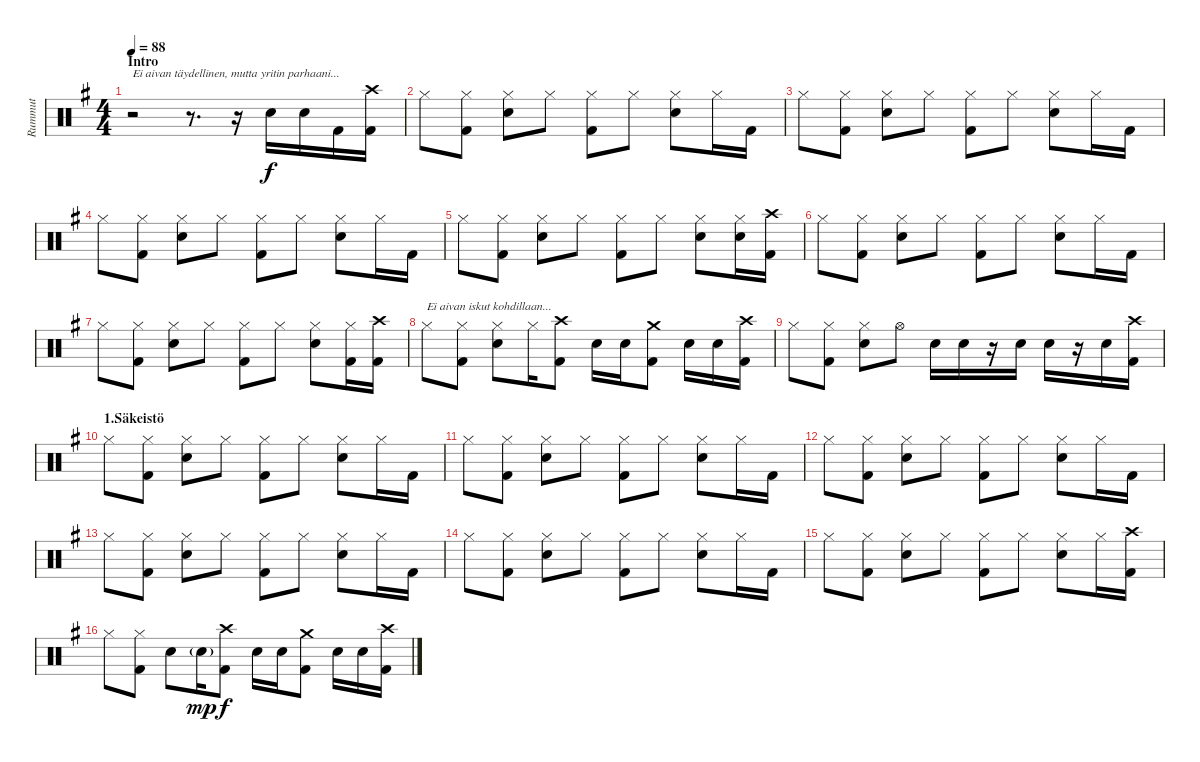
\track ("Rummut" "Rummut") {instrument percussion}
\staff {score}
\articulation defaults
\ts (4 4)
\section ("" "Intro")
\tempo 88
\clef neutral
\ks eminor
r.2{txt "Ei aivan täydellinen, mutta yritin parhaani..." dy f} r.8{d} r.16 "Snare (hit) 2".16 "Snare (hit) 2".16 "Kick (hit) 2".16 ("Crash high (hit)" "Kick (hit) 2").16 |
"Hi-Hat (closed)".8 ("Hi-Hat (closed)" "Kick (hit) 2").8 ("Hi-Hat (closed)" "Snare (hit) 2").8 "Hi-Hat (closed)".8 ("Hi-Hat (closed)" "Kick (hit) 2").8 "Hi-Hat (closed)".8 ("Hi-Hat (closed)" "Snare (hit) 2").8 "Hi-Hat (closed)".16 "Kick (hit) 2".16 |
"Hi-Hat (closed)".8 ("Hi-Hat (closed)" "Kick (hit) 2").8 ("Hi-Hat (closed)" "Snare (hit) 2").8 "Hi-Hat (closed)".8 ("Hi-Hat (closed)" "Kick (hit) 2").8 "Hi-Hat (closed)".8 ("Hi-Hat (closed)" "Snare (hit) 2").8 "Hi-Hat (closed)".16 "Kick (hit) 2".16 |
"Hi-Hat (closed)".8 ("Hi-Hat (closed)" "Kick (hit) 2").8 ("Hi-Hat (closed)" "Snare (hit) 2").8 "Hi-Hat (closed)".8 ("Hi-Hat (closed)" "Kick (hit) 2").8 "Hi-Hat (closed)".8 ("Hi-Hat (closed)" "Snare (hit) 2").8 "Hi-Hat (closed)".16 "Kick (hit) 2".16 |
"Hi-Hat (closed)".8 ("Hi-Hat (closed)" "Kick (hit) 2").8 ("Hi-Hat (closed)" "Snare (hit) 2").8 "Hi-Hat (closed)".8 ("Hi-Hat (closed)" "Kick (hit) 2").8 "Hi-Hat (closed)".8 ("Hi-Hat (closed)" "Snare (hit) 2").8 ("Hi-Hat (closed)" "Snare (hit) 2").16 ("Crash high (hit)" "Kick (hit) 2").16 |
"Hi-Hat (closed)".8 ("Hi-Hat (closed)" "Kick (hit) 2").8 ("Hi-Hat (closed)" "Snare (hit) 2").8 "Hi-Hat (closed)".8 ("Hi-Hat (closed)" "Kick (hit) 2").8 "Hi-Hat (closed)".8 ("Hi-Hat (closed)" "Snare (hit) 2").8 "Hi-Hat (closed)".16 "Kick (hit) 2".16 |
"Hi-Hat (closed)".8 ("Hi-Hat (closed)" "Kick (hit) 2").8 ("Hi-Hat (closed)" "Snare (hit) 2").8 "Hi-Hat (closed)".8 ("Hi-Hat (closed)" "Kick (hit) 2").8 "Hi-Hat (closed)".8 ("Hi-Hat (closed)" "Snare (hit) 2").8 ("Hi-Hat (closed)" "Kick (hit) 2").16 ("Crash high (hit)" "Kick (hit) 2").16 |
"Hi-Hat (closed)".8{txt "Ei aivan iskut kohdillaan..."} ("Hi-Hat (closed)" "Kick (hit) 2").8 ("Hi-Hat (closed)" "Snare (hit) 2").8 "Hi-Hat (closed)".16 ("Crash high (hit)" "Kick (hit) 2").8 "Snare (hit) 2".16 "Snare (hit) 2".16 ("Crash medium (hit)" "Kick (hit) 2").8 "Snare (hit) 2".16 "Snare (hit) 2".16 ("Crash high (hit)" "Kick (hit) 2").16 |
"Hi-Hat (closed)".8 ("Hi-Hat (closed)" "Kick (hit) 2").8 ("Hi-Hat (closed)" "Snare (hit) 2").8 "Hi-Hat (open)".8 "Snare (hit) 2".16 "Snare (hit) 2".16 r.16 "Snare (hit) 2".16 "Snare (hit) 2".16 r.16 "Snare (hit) 2".16 ("Crash high (hit)" "Kick (hit) 2").16 |
\section ("" "1.Säkeistö")
"Hi-Hat (closed)".8 ("Hi-Hat (closed)" "Kick (hit) 2").8 ("Hi-Hat (closed)" "Snare (hit) 2").8 "Hi-Hat (closed)".8 ("Hi-Hat (closed)" "Kick (hit) 2").8 "Hi-Hat (closed)".8 ("Hi-Hat (closed)" "Snare (hit) 2").8 "Hi-Hat (closed)".16 "Kick (hit) 2".16 |
"Hi-Hat (closed)".8 ("Hi-Hat (closed)" "Kick (hit) 2").8 ("Hi-Hat (closed)" "Snare (hit) 2").8 "Hi-Hat (closed)".8 ("Hi-Hat (closed)" "Kick (hit) 2").8 "Hi-Hat (closed)".8 ("Hi-Hat (closed)" "Snare (hit) 2").8 "Hi-Hat (closed)".16 "Kick (hit) 2".16 |
"Hi-Hat (closed)".8 ("Hi-Hat (closed)" "Kick (hit) 2").8 ("Hi-Hat (closed)" "Snare (hit) 2").8 "Hi-Hat (closed)".8 ("Hi-Hat (closed)" "Kick (hit) 2").8 "Hi-Hat (closed)".8 ("Hi-Hat (closed)" "Snare (hit) 2").8 "Hi-Hat (closed)".16 "Kick (hit) 2".16 |
"Hi-Hat (closed)".8 ("Hi-Hat (closed)" "Kick (hit) 2").8 ("Hi-Hat (closed)" "Snare (hit) 2").8 "Hi-Hat (closed)".8 ("Hi-Hat (closed)" "Kick (hit) 2").8 "Hi-Hat (closed)".8 ("Hi-Hat (closed)" "Snare (hit) 2").8 "Hi-Hat (closed)".16 "Kick (hit) 2".16 |
"Hi-Hat (closed)".8 ("Hi-Hat (closed)" "Kick (hit) 2").8 ("Hi-Hat (closed)" "Snare (hit) 2").8 "Hi-Hat (closed)".8 ("Hi-Hat (closed)" "Kick (hit) 2").8 "Hi-Hat (closed)".8 ("Hi-Hat (closed)" "Snare (hit) 2").8 "Hi-Hat (closed)".16 "Kick (hit) 2".16 |
"Hi-Hat (closed)".8 ("Hi-Hat (closed)" "Kick (hit) 2").8 ("Hi-Hat (closed)" "Snare (hit) 2").8 "Hi-Hat (closed)".8 ("Hi-Hat (closed)" "Kick (hit) 2").8 "Hi-Hat (closed)".8 ("Hi-Hat (closed)" "Snare (hit) 2").8 "Hi-Hat (closed)".16 ("Crash high (hit)" "Kick (hit) 2").16 |
"Hi-Hat (closed)".8 ("Hi-Hat (closed)" "Kick (hit) 2").8 "Snare (hit) 2".8 "Snare (hit) 2"{g}.16{dy mp} ("Crash high (hit)" "Kick (hit) 2").8{dy f} "Snare (hit) 2".16 "Snare (hit) 2".16 ("Crash medium (hit)" "Kick (hit) 2").8 "Snare (hit) 2".16 "Snare (hit) 2".16 ("Crash high (hit)" "Kick (hit) 2").16
